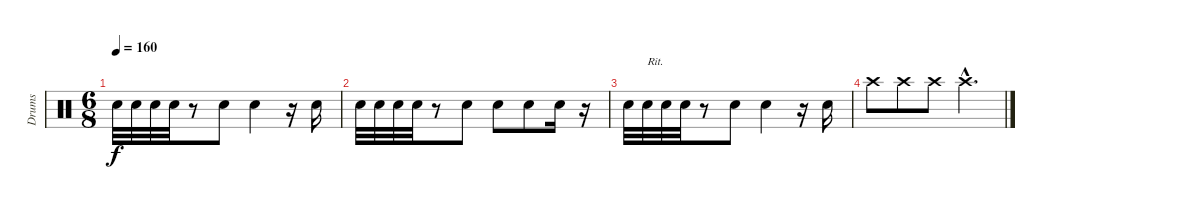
\track ("Drums" "Drums") {instrument percussion}
\staff {score}
\articulation defaults
\ts (6 8)
\tempo 160
\clef neutral
\ks c "Snare (hit) 2".32{dy f} "Snare (hit) 2".32 "Snare (hit) 2".32 "Snare (hit) 2".32
r.8 "Snare (hit) 2".8 "Snare (hit) 2".4 r.16 "Snare (hit) 2".16 |
"Snare (hit) 2".32 "Snare (hit) 2".32 "Snare (hit) 2".32 "Snare (hit) 2".32 r.8 "Snare (hit) 2".8 "Snare (hit) 2".8 "Snare (hit) 2".8 "Snare (hit) 2".16 r.16 |
"Snare (hit) 2".32 "Snare (hit) 2".32{txt "Rit."} "Snare (hit) 2".32 "Snare (hit) 2".32 r.8 "Snare (hit) 2".8 "Snare (hit) 2".4 r.16 "Snare (hit) 2".16 |
"Crash high (hit)".8 "Crash high (hit)".8 "Crash high (hit)".8 "Crash high (hit)"{hac}.4{d}
